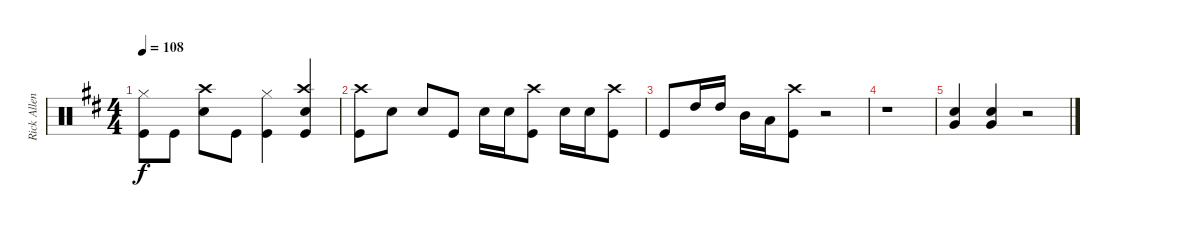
\track ("Rick Allen" "Rick Allen") {instrument percussion}
\staff {score}
\articulation defaults
\ts (4 4)
\tempo 108
\clef neutral
\ks d
("Hi-Hat (closed)" "Kick (hit)").8{dy f} "Kick (hit)".8 ("Crash high (hit)" "Snare (hit) 2").8 "Kick (hit)".8 ("Hi-Hat (closed)" "Kick (hit)").4 ("Crash high (hit)" "Snare (hit) 2" "Kick (hit)").4 |
("Crash high (hit)" "Kick (hit)").8 "Snare (hit) 2".8 "Snare (hit) 2".8 "Kick (hit)".8 "Snare (hit) 2".16 "Snare (hit) 2".16 ("Crash high (hit)" "Kick (hit)").8 "Snare (hit) 2".16 "Snare (hit) 2".16 ("Crash high (hit)" "Kick (hit)").8 |
"Kick (hit)".8 "High Tom (hit)".16 "High Tom (hit)".16 "Mid Tom (hit)".16 "Low Tom (hit)".16 ("Crash high (hit)" "Kick (hit)").8 r.2 |
r.1 |
("Very Low Tom (hit)" "Snare (hit) 2").4 ("Very Low Tom (hit)" "Snare (hit) 2").4 r.2
